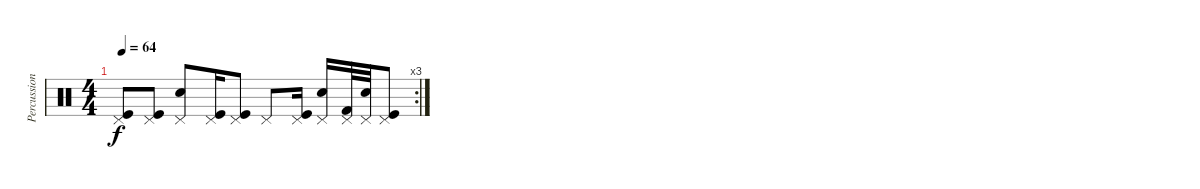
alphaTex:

\track ("Percussion" "Percussion") {instrument percussion}
\staff {score}
\articulation defaults
\rc 3
\ts (4 4)
\tempo 64
\clef neutral
\ks c
("Kick (hit)" "Pedal Hi-Hat (hit)").8{dy f} ("Kick (hit)" "Pedal Hi-Hat (hit)").8 ("Snare (hit) 2" "Pedal Hi-Hat (hit)").8 ("Kick (hit)" "Pedal Hi-Hat (hit)").16 ("Kick (hit)" "Pedal Hi-Hat (hit)").8 "Pedal Hi-Hat (hit)".8 ("Kick (hit)" "Pedal Hi-Hat (hit)").16 ("Snare (hit) 2" "Pedal Hi-Hat (hit)").16 ("Kick (hit) 2" "Pedal Hi-Hat (hit)").32 ("Snare (hit) 2" "Pedal Hi-Hat (hit)").32 ("Kick (hit)" "Pedal Hi-Hat (hit)").8
